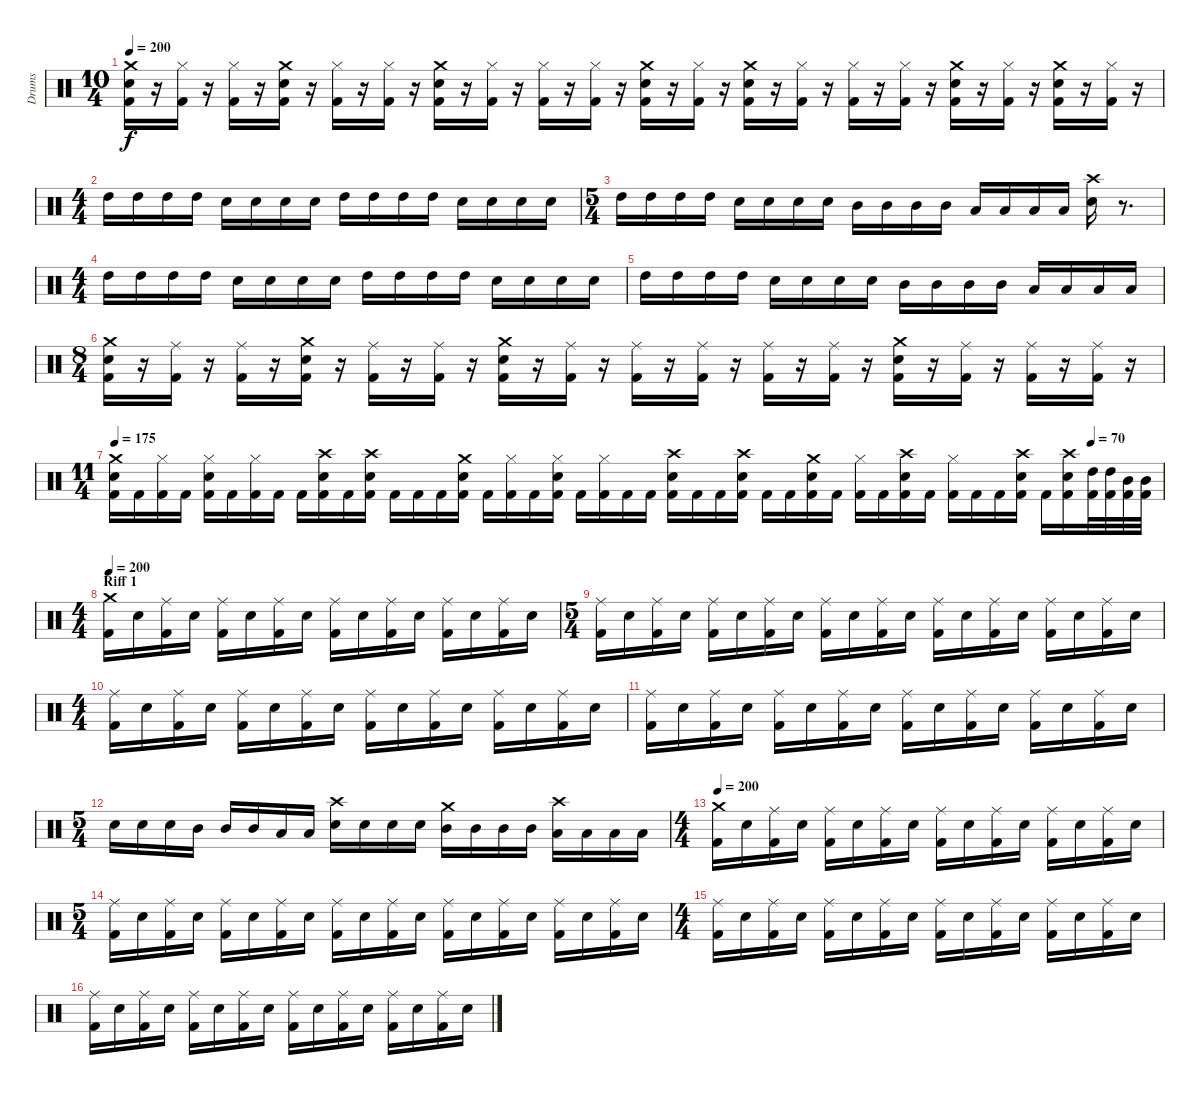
\track ("Drums" "Drums") {instrument percussion}
\staff {score}
\articulation defaults
\ts (10 4)
\tempo 200
\clef neutral
\ks c
("Crash medium (hit)" "Electric Snare (hit)" "Kick (hit) 2").16{dy f} r.16 ("Hi-Hat (closed)" "Kick (hit) 2").16 r.16 ("Hi-Hat (closed)" "Kick (hit) 2").16 r.16 ("Crash medium (hit)" "Electric Snare (hit)" "Kick (hit) 2").16 r.16 ("Hi-Hat (closed)" "Kick (hit) 2").16 r.16 ("Hi-Hat (closed)" "Kick (hit) 2").16 r.16 ("Crash medium (hit)" "Electric Snare (hit)" "Kick (hit) 2").16 r.16 ("Hi-Hat (closed)" "Kick (hit) 2").16 r.16 ("Hi-Hat (closed)" "Kick (hit) 2").16 r.16 ("Hi-Hat (closed)" "Kick (hit) 2").16 r.16 ("Crash medium (hit)" "Electric Snare (hit)" "Kick (hit) 2").16 r.16 ("Hi-Hat (closed)" "Kick (hit) 2").16 r.16 ("Crash medium (hit)" "Electric Snare (hit)" "Kick (hit) 2").16 r.16 ("Hi-Hat (closed)" "Kick (hit) 2").16 r.16 ("Hi-Hat (closed)" "Kick (hit) 2").16 r.16 ("Hi-Hat (closed)" "Kick (hit) 2").16 r.16 ("Crash medium (hit)" "Electric Snare (hit)" "Kick (hit) 2").16 r.16 ("Hi-Hat (closed)" "Kick (hit) 2").16 r.16 ("Crash medium (hit)" "Electric Snare (hit)" "Kick (hit) 2").16 r.16 ("Hi-Hat (closed)" "Kick (hit) 2").16 r.16 |
\ts (4 4)
"High Tom (hit)".16 "High Tom (hit)".16 "High Tom (hit)".16 "High Tom (hit)".16 "Electric Snare (hit)".16 "Electric Snare (hit)".16 "Electric Snare (hit)".16 "Electric Snare (hit)".16 "High Tom (hit)".16 "High Tom (hit)".16 "High Tom (hit)".16 "High Tom (hit)".16 "Electric Snare (hit)".16 "Electric Snare (hit)".16 "Electric Snare (hit)".16 "Electric Snare (hit)".16 |
\ts (5 4)
"High Tom (hit)".16 "High Tom (hit)".16 "High Tom (hit)".16 "High Tom (hit)".16 "Electric Snare (hit)".16 "Electric Snare (hit)".16 "Electric Snare (hit)".16 "Electric Snare (hit)".16 "Mid Tom (hit)".16 "Mid Tom (hit)".16 "Mid Tom (hit)".16 "Mid Tom (hit)".16 "Low Tom (hit)".16 "Low Tom (hit)".16 "Low Tom (hit)".16 "Low Tom (hit)".16 ("Crash high (hit)" "Electric Snare (hit)").16 r.8{d} |
\ts (4 4)
"High Tom (hit)".16 "High Tom (hit)".16 "High Tom (hit)".16 "High Tom (hit)".16 "Electric Snare (hit)".16 "Electric Snare (hit)".16 "Electric Snare (hit)".16 "Electric Snare (hit)".16 "High Tom (hit)".16 "High Tom (hit)".16 "High Tom (hit)".16 "High Tom (hit)".16 "Electric Snare (hit)".16 "Electric Snare (hit)".16 "Electric Snare (hit)".16 "Electric Snare (hit)".16 |
"High Tom (hit)".16 "High Tom (hit)".16 "High Tom (hit)".16 "High Tom (hit)".16 "Electric Snare (hit)".16 "Electric Snare (hit)".16 "Electric Snare (hit)".16 "Electric Snare (hit)".16 "Mid Tom (hit)".16 "Mid Tom (hit)".16 "Mid Tom (hit)".16 "Mid Tom (hit)".16 "Low Tom (hit)".16 "Low Tom (hit)".16 "Low Tom (hit)".16 "Low Tom (hit)".16 |
\ts (8 4)
("Crash medium (hit)" "Electric Snare (hit)" "Kick (hit) 2").16 r.16 ("Ride (middle)" "Kick (hit) 2").16 r.16 ("Ride (middle)" "Kick (hit) 2").16 r.16 ("Crash medium (hit)" "Electric Snare (hit)" "Kick (hit) 2").16 r.16 ("Ride (middle)" "Kick (hit) 2").16 r.16 ("Ride (middle)" "Kick (hit) 2").16 r.16 ("Crash medium (hit)" "Electric Snare (hit)" "Kick (hit) 2").16 r.16 ("Ride (middle)" "Kick (hit) 2").16 r.16 ("Ride (middle)" "Kick (hit) 2").16 r.16 ("Ride (middle)" "Kick (hit) 2").16 r.16 ("Ride (middle)" "Kick (hit) 2").16 r.16 ("Ride (middle)" "Kick (hit) 2").16 r.16 ("Crash medium (hit)" "Electric Snare (hit)" "Kick (hit) 2").16 r.16 ("Ride (middle)" "Kick (hit) 2").16 r.16 ("Ride (middle)" "Kick (hit) 2").16 r.16 ("Ride (middle)" "Kick (hit) 2").16 r.16 |
\ts (11 4)
\tempo (70 0.9318181818181818)
\tempo 175
("Crash medium (hit)" "Electric Snare (hit)" "Kick (hit) 2").16 "Kick (hit) 2".16 ("Hi-Hat (closed)" "Kick (hit) 2").16 "Kick (hit) 2".16 ("Hi-Hat (closed)" "Electric Snare (hit)" "Kick (hit) 2").16 "Kick (hit) 2".16 ("Hi-Hat (closed)" "Kick (hit) 2").16 "Kick (hit) 2".16 "Kick (hit) 2".16 ("Crash high (hit)" "Electric Snare (hit)" "Kick (hit) 2").16 "Kick (hit) 2".16 ("Crash high (hit)" "Electric Snare (hit)" "Kick (hit) 2").16 "Kick (hit) 2".16 "Kick (hit) 2".16 "Kick (hit) 2".16 ("Crash medium (hit)" "Electric Snare (hit)" "Kick (hit) 2").16 "Kick (hit) 2".16 ("Hi-Hat (closed)" "Kick (hit) 2").16 "Kick (hit) 2".16 ("Hi-Hat (closed)" "Electric Snare (hit)" "Kick (hit) 2").16 "Kick (hit) 2".16 ("Hi-Hat (closed)" "Kick (hit) 2").16 "Kick (hit) 2".16 "Kick (hit) 2".16 ("Crash high (hit)" "Electric Snare (hit)" "Kick (hit) 2").16 "Kick (hit) 2".16 "Kick (hit) 2".16 ("Crash high (hit)" "Electric Snare (hit)" "Kick (hit) 2").16 "Kick (hit) 2".16 "Kick (hit) 2".16 ("Crash medium (hit)" "Electric Snare (hit)" "Kick (hit) 2").16 "Kick (hit) 2".16 ("Hi-Hat (closed)" "Kick (hit) 2").16 "Kick (hit) 2".16 ("Crash high (hit)" "Electric Snare (hit)" "Kick (hit) 2").16 "Kick (hit) 2".16 ("Hi-Hat (closed)" "Kick (hit) 2").16 "Kick (hit) 2".16 "Kick (hit) 2".16 ("Crash high (hit)" "Electric Snare (hit)" "Kick (hit) 2").16 "Kick (hit) 2".16 ("Crash high (hit)" "Electric Snare (hit)" "Kick (hit) 2").16 ("High Tom (hit)" "Kick (hit) 2").32 ("High Tom (hit)" "Kick (hit) 2").32 ("Mid Tom (hit)" "Kick (hit) 2").32 ("Mid Tom (hit)" "Kick (hit) 2").32 |
\ts (4 4)
\section ("" "Riff 1")
\tempo 200
("Crash medium (hit)" "Kick (hit) 2").16 "Electric Snare (hit)".16 ("Ride (middle)" "Kick (hit) 2").16 "Electric Snare (hit)".16 ("Ride (middle)" "Kick (hit) 2").16 "Electric Snare (hit)".16 ("Ride (middle)" "Kick (hit) 2").16 "Electric Snare (hit)".16 ("Ride (middle)" "Kick (hit) 2").16 "Electric Snare (hit)".16 ("Ride (middle)" "Kick (hit) 2").16 "Electric Snare (hit)".16 ("Ride (middle)" "Kick (hit) 2").16 "Electric Snare (hit)".16 ("Ride (middle)" "Kick (hit) 2").16 "Electric Snare (hit)".16 |
\ts (5 4)
("Ride (middle)" "Kick (hit) 2").16 "Electric Snare (hit)".16 ("Ride (middle)" "Kick (hit) 2").16 "Electric Snare (hit)".16 ("Ride (middle)" "Kick (hit) 2").16 "Electric Snare (hit)".16 ("Ride (middle)" "Kick (hit) 2").16 "Electric Snare (hit)".16 ("Ride (middle)" "Kick (hit) 2").16 "Electric Snare (hit)".16 ("Ride (middle)" "Kick (hit) 2").16 "Electric Snare (hit)".16 ("Ride (middle)" "Kick (hit) 2").16 "Electric Snare (hit)".16 ("Ride (middle)" "Kick (hit) 2").16 "Electric Snare (hit)".16 ("Ride (middle)" "Kick (hit) 2").16 "Electric Snare (hit)".16 ("Ride (middle)" "Kick (hit) 2").16 "Electric Snare (hit)".16 |
\ts (4 4)
("Ride (middle)" "Kick (hit) 2").16 "Electric Snare (hit)".16 ("Ride (middle)" "Kick (hit) 2").16 "Electric Snare (hit)".16 ("Ride (middle)" "Kick (hit) 2").16 "Electric Snare (hit)".16 ("Ride (middle)" "Kick (hit) 2").16 "Electric Snare (hit)".16 ("Ride (middle)" "Kick (hit) 2").16 "Electric Snare (hit)".16 ("Ride (middle)" "Kick (hit) 2").16 "Electric Snare (hit)".16 ("Ride (middle)" "Kick (hit) 2").16 "Electric Snare (hit)".16 ("Ride (middle)" "Kick (hit) 2").16 "Electric Snare (hit)".16 |
("Ride (middle)" "Kick (hit) 2").16 "Electric Snare (hit)".16 ("Ride (middle)" "Kick (hit) 2").16 "Electric Snare (hit)".16 ("Ride (middle)" "Kick (hit) 2").16 "Electric Snare (hit)".16 ("Ride (middle)" "Kick (hit) 2").16 "Electric Snare (hit)".16 ("Ride (middle)" "Kick (hit) 2").16 "Electric Snare (hit)".16 ("Ride (middle)" "Kick (hit) 2").16 "Electric Snare (hit)".16 ("Ride (middle)" "Kick (hit) 2").16 "Electric Snare (hit)".16 ("Ride (middle)" "Kick (hit) 2").16 "Electric Snare (hit)".16 |
\ts (5 4)
"Electric Snare (hit)".16 "Electric Snare (hit)".16 "Electric Snare (hit)".16 "Mid Tom (hit)".16 "Mid Tom (hit)".16 "Mid Tom (hit)".16 "Low Tom (hit)".16 "Low Tom (hit)".16 ("Crash high (hit)" "Electric Snare (hit)").16 "Electric Snare (hit)".16 "Electric Snare (hit)".16 "Electric Snare (hit)".16 ("Crash medium (hit)" "Mid Tom (hit)").16 "Mid Tom (hit)".16 "Mid Tom (hit)".16 "Mid Tom (hit)".16 ("Crash high (hit)" "Low Tom (hit)").16 "Low Tom (hit)".16 "Low Tom (hit)".16 "Low Tom (hit)".16 |
\ts (4 4)
\tempo 200
("Crash medium (hit)" "Kick (hit) 2").16 "Electric Snare (hit)".16 ("Ride (middle)" "Kick (hit) 2").16 "Electric Snare (hit)".16 ("Ride (middle)" "Kick (hit) 2").16 "Electric Snare (hit)".16 ("Ride (middle)" "Kick (hit) 2").16 "Electric Snare (hit)".16 ("Ride (middle)" "Kick (hit) 2").16 "Electric Snare (hit)".16 ("Ride (middle)" "Kick (hit) 2").16 "Electric Snare (hit)".16 ("Ride (middle)" "Kick (hit) 2").16 "Electric Snare (hit)".16 ("Ride (middle)" "Kick (hit) 2").16 "Electric Snare (hit)".16 |
\ts (5 4)
("Ride (middle)" "Kick (hit) 2").16 "Electric Snare (hit)".16 ("Ride (middle)" "Kick (hit) 2").16 "Electric Snare (hit)".16 ("Ride (middle)" "Kick (hit) 2").16 "Electric Snare (hit)".16 ("Ride (middle)" "Kick (hit) 2").16 "Electric Snare (hit)".16 ("Ride (middle)" "Kick (hit) 2").16 "Electric Snare (hit)".16 ("Ride (middle)" "Kick (hit) 2").16 "Electric Snare (hit)".16 ("Ride (middle)" "Kick (hit) 2").16 "Electric Snare (hit)".16 ("Ride (middle)" "Kick (hit) 2").16 "Electric Snare (hit)".16 ("Ride (middle)" "Kick (hit) 2").16 "Electric Snare (hit)".16 ("Ride (middle)" "Kick (hit) 2").16 "Electric Snare (hit)".16 |
\ts (4 4)
("Ride (middle)" "Kick (hit) 2").16 "Electric Snare (hit)".16 ("Ride (middle)" "Kick (hit) 2").16 "Electric Snare (hit)".16 ("Ride (middle)" "Kick (hit) 2").16 "Electric Snare (hit)".16 ("Ride (middle)" "Kick (hit) 2").16 "Electric Snare (hit)".16 ("Ride (middle)" "Kick (hit) 2").16 "Electric Snare (hit)".16 ("Ride (middle)" "Kick (hit) 2").16 "Electric Snare (hit)".16 ("Ride (middle)" "Kick (hit) 2").16 "Electric Snare (hit)".16 ("Ride (middle)" "Kick (hit) 2").16 "Electric Snare (hit)".16 |
("Ride (middle)" "Kick (hit) 2").16 "Electric Snare (hit)".16 ("Ride (middle)" "Kick (hit) 2").16 "Electric Snare (hit)".16 ("Ride (middle)" "Kick (hit) 2").16 "Electric Snare (hit)".16 ("Ride (middle)" "Kick (hit) 2").16 "Electric Snare (hit)".16 ("Ride (middle)" "Kick (hit) 2").16 "Electric Snare (hit)".16 ("Ride (middle)" "Kick (hit) 2").16 "Electric Snare (hit)".16 ("Ride (middle)" "Kick (hit) 2").16 "Electric Snare (hit)".16 ("Ride (middle)" "Kick (hit) 2").16 "Electric Snare (hit)".16
